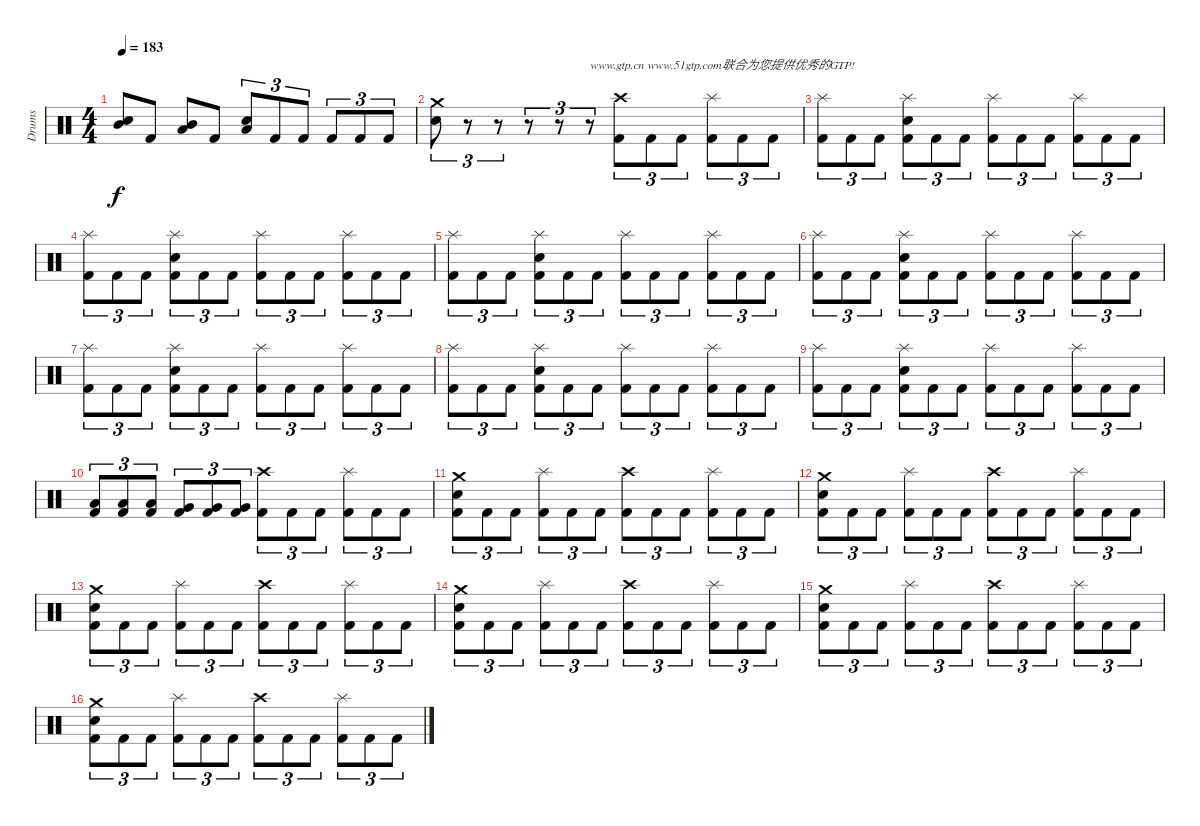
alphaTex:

\track ("Drums" "Drums") {instrument percussion}
\staff {score}
\articulation defaults
\ts (4 4)
\tempo 183
\clef neutral
\ks c
("Electric Snare (hit)" "Mid Tom (hit)").8{dy f} "Kick (hit) 2".8 ("Mid Tom (hit)" "Low Tom (hit)").8 "Kick (hit) 2".8 ("Electric Snare (hit)" "Low Tom (hit)").8{tu (3 2)} "Kick (hit) 2".8{tu (3 2)} "Kick (hit) 2".8{tu (3 2)} "Kick (hit) 2".8{tu (3 2)} "Kick (hit) 2".8{tu (3 2)} "Kick (hit) 2".8{tu (3 2)} |
("Electric Snare (hit)" "Crash medium (hit)").8{tu (3 2)} r.8{tu (3 2)} r.8{tu (3 2)} r.8{tu (3 2)} r.8{tu (3 2)} r.8{tu (3 2) txt "www.gtp.cn www.51gtp.com联合为您提供优秀的GTP!"} ("Kick (hit) 2" "Crash high (hit)").8{tu (3 2)} "Kick (hit) 2".8{tu (3 2)} "Kick (hit) 2".8{tu (3 2)} ("Kick (hit) 2" "Splash (hit)").8{tu (3 2)} "Kick (hit) 2".8{tu (3 2)} "Kick (hit) 2".8{tu (3 2)} |
("Kick (hit) 2" "Splash (hit)").8{tu (3 2)} "Kick (hit) 2".8{tu (3 2)} "Kick (hit) 2".8{tu (3 2)} ("Kick (hit) 2" "Electric Snare (hit)" "Splash (hit)").8{tu (3 2)} "Kick (hit) 2".8{tu (3 2)} "Kick (hit) 2".8{tu (3 2)} ("Kick (hit) 2" "Splash (hit)").8{tu (3 2)} "Kick (hit) 2".8{tu (3 2)} "Kick (hit) 2".8{tu (3 2)} ("Kick (hit) 2" "Splash (hit)").8{tu (3 2)} "Kick (hit) 2".8{tu (3 2)} "Kick (hit) 2".8{tu (3 2)} |
("Kick (hit) 2" "Splash (hit)").8{tu (3 2)} "Kick (hit) 2".8{tu (3 2)} "Kick (hit) 2".8{tu (3 2)} ("Kick (hit) 2" "Electric Snare (hit)" "Splash (hit)").8{tu (3 2)} "Kick (hit) 2".8{tu (3 2)} "Kick (hit) 2".8{tu (3 2)} ("Kick (hit) 2" "Splash (hit)").8{tu (3 2)} "Kick (hit) 2".8{tu (3 2)} "Kick (hit) 2".8{tu (3 2)} ("Kick (hit) 2" "Splash (hit)").8{tu (3 2)} "Kick (hit) 2".8{tu (3 2)} "Kick (hit) 2".8{tu (3 2)} |
("Kick (hit) 2" "Splash (hit)").8{tu (3 2)} "Kick (hit) 2".8{tu (3 2)} "Kick (hit) 2".8{tu (3 2)} ("Kick (hit) 2" "Electric Snare (hit)" "Splash (hit)").8{tu (3 2)} "Kick (hit) 2".8{tu (3 2)} "Kick (hit) 2".8{tu (3 2)} ("Kick (hit) 2" "Splash (hit)").8{tu (3 2)} "Kick (hit) 2".8{tu (3 2)} "Kick (hit) 2".8{tu (3 2)} ("Kick (hit) 2" "Splash (hit)").8{tu (3 2)} "Kick (hit) 2".8{tu (3 2)} "Kick (hit) 2".8{tu (3 2)} |
("Kick (hit) 2" "Splash (hit)").8{tu (3 2)} "Kick (hit) 2".8{tu (3 2)} "Kick (hit) 2".8{tu (3 2)} ("Kick (hit) 2" "Electric Snare (hit)" "Splash (hit)").8{tu (3 2)} "Kick (hit) 2".8{tu (3 2)} "Kick (hit) 2".8{tu (3 2)} ("Kick (hit) 2" "Splash (hit)").8{tu (3 2)} "Kick (hit) 2".8{tu (3 2)} "Kick (hit) 2".8{tu (3 2)} ("Kick (hit) 2" "Splash (hit)").8{tu (3 2)} "Kick (hit) 2".8{tu (3 2)} "Kick (hit) 2".8{tu (3 2)} |
("Kick (hit) 2" "Splash (hit)").8{tu (3 2)} "Kick (hit) 2".8{tu (3 2)} "Kick (hit) 2".8{tu (3 2)} ("Kick (hit) 2" "Electric Snare (hit)" "Splash (hit)").8{tu (3 2)} "Kick (hit) 2".8{tu (3 2)} "Kick (hit) 2".8{tu (3 2)} ("Kick (hit) 2" "Splash (hit)").8{tu (3 2)} "Kick (hit) 2".8{tu (3 2)} "Kick (hit) 2".8{tu (3 2)} ("Kick (hit) 2" "Splash (hit)").8{tu (3 2)} "Kick (hit) 2".8{tu (3 2)} "Kick (hit) 2".8{tu (3 2)} |
("Kick (hit) 2" "Splash (hit)").8{tu (3 2)} "Kick (hit) 2".8{tu (3 2)} "Kick (hit) 2".8{tu (3 2)} ("Kick (hit) 2" "Electric Snare (hit)" "Splash (hit)").8{tu (3 2)} "Kick (hit) 2".8{tu (3 2)} "Kick (hit) 2".8{tu (3 2)} ("Kick (hit) 2" "Splash (hit)").8{tu (3 2)} "Kick (hit) 2".8{tu (3 2)} "Kick (hit) 2".8{tu (3 2)} ("Kick (hit) 2" "Splash (hit)").8{tu (3 2)} "Kick (hit) 2".8{tu (3 2)} "Kick (hit) 2".8{tu (3 2)} |
("Kick (hit) 2" "Splash (hit)").8{tu (3 2)} "Kick (hit) 2".8{tu (3 2)} "Kick (hit) 2".8{tu (3 2)} ("Kick (hit) 2" "Electric Snare (hit)" "Splash (hit)").8{tu (3 2)} "Kick (hit) 2".8{tu (3 2)} "Kick (hit) 2".8{tu (3 2)} ("Kick (hit) 2" "Splash (hit)").8{tu (3 2)} "Kick (hit) 2".8{tu (3 2)} "Kick (hit) 2".8{tu (3 2)} ("Kick (hit) 2" "Splash (hit)").8{tu (3 2)} "Kick (hit) 2".8{tu (3 2)} "Kick (hit) 2".8{tu (3 2)} |
("Kick (hit) 2" "Low Tom (hit)").8{tu (3 2)} ("Kick (hit) 2" "Low Tom (hit)").8{tu (3 2)} ("Kick (hit) 2" "Low Tom (hit)").8{tu (3 2)} ("Kick (hit) 2" "Very Low Tom (hit)").8{tu (3 2)} ("Kick (hit) 2" "Very Low Tom (hit)").8{tu (3 2)} ("Kick (hit) 2" "Very Low Tom (hit)").8{tu (3 2)} ("Kick (hit) 2" "Crash high (hit)").8{tu (3 2)} "Kick (hit) 2".8{tu (3 2)} "Kick (hit) 2".8{tu (3 2)} ("Kick (hit) 2" "Splash (hit)").8{tu (3 2)} "Kick (hit) 2".8{tu (3 2)} "Kick (hit) 2".8{tu (3 2)} |
("Kick (hit) 2" "Electric Snare (hit)" "Crash medium (hit)").8{tu (3 2)} "Kick (hit) 2".8{tu (3 2)} "Kick (hit) 2".8{tu (3 2)} ("Kick (hit) 2" "Splash (hit)").8{tu (3 2)} "Kick (hit) 2".8{tu (3 2)} "Kick (hit) 2".8{tu (3 2)} ("Kick (hit) 2" "Crash high (hit)").8{tu (3 2)} "Kick (hit) 2".8{tu (3 2)} "Kick (hit) 2".8{tu (3 2)} ("Kick (hit) 2" "Splash (hit)").8{tu (3 2)} "Kick (hit) 2".8{tu (3 2)} "Kick (hit) 2".8{tu (3 2)} |
("Kick (hit) 2" "Electric Snare (hit)" "Crash medium (hit)").8{tu (3 2)} "Kick (hit) 2".8{tu (3 2)} "Kick (hit) 2".8{tu (3 2)} ("Kick (hit) 2" "Splash (hit)").8{tu (3 2)} "Kick (hit) 2".8{tu (3 2)} "Kick (hit) 2".8{tu (3 2)} ("Kick (hit) 2" "Crash high (hit)").8{tu (3 2)} "Kick (hit) 2".8{tu (3 2)} "Kick (hit) 2".8{tu (3 2)} ("Kick (hit) 2" "Splash (hit)").8{tu (3 2)} "Kick (hit) 2".8{tu (3 2)} "Kick (hit) 2".8{tu (3 2)} |
("Kick (hit) 2" "Electric Snare (hit)" "Crash medium (hit)").8{tu (3 2)} "Kick (hit) 2".8{tu (3 2)} "Kick (hit) 2".8{tu (3 2)} ("Kick (hit) 2" "Splash (hit)").8{tu (3 2)} "Kick (hit) 2".8{tu (3 2)} "Kick (hit) 2".8{tu (3 2)} ("Kick (hit) 2" "Crash high (hit)").8{tu (3 2)} "Kick (hit) 2".8{tu (3 2)} "Kick (hit) 2".8{tu (3 2)} ("Kick (hit) 2" "Splash (hit)").8{tu (3 2)} "Kick (hit) 2".8{tu (3 2)} "Kick (hit) 2".8{tu (3 2)} |
("Kick (hit) 2" "Electric Snare (hit)" "Crash medium (hit)").8{tu (3 2)} "Kick (hit) 2".8{tu (3 2)} "Kick (hit) 2".8{tu (3 2)} ("Kick (hit) 2" "Splash (hit)").8{tu (3 2)} "Kick (hit) 2".8{tu (3 2)} "Kick (hit) 2".8{tu (3 2)} ("Kick (hit) 2" "Crash high (hit)").8{tu (3 2)} "Kick (hit) 2".8{tu (3 2)} "Kick (hit) 2".8{tu (3 2)} ("Kick (hit) 2" "Splash (hit)").8{tu (3 2)} "Kick (hit) 2".8{tu (3 2)} "Kick (hit) 2".8{tu (3 2)} |
("Kick (hit) 2" "Electric Snare (hit)" "Crash medium (hit)").8{tu (3 2)} "Kick (hit) 2".8{tu (3 2)} "Kick (hit) 2".8{tu (3 2)} ("Kick (hit) 2" "Splash (hit)").8{tu (3 2)} "Kick (hit) 2".8{tu (3 2)} "Kick (hit) 2".8{tu (3 2)} ("Kick (hit) 2" "Crash high (hit)").8{tu (3 2)} "Kick (hit) 2".8{tu (3 2)} "Kick (hit) 2".8{tu (3 2)} ("Kick (hit) 2" "Splash (hit)").8{tu (3 2)} "Kick (hit) 2".8{tu (3 2)} "Kick (hit) 2".8{tu (3 2)} |
("Kick (hit) 2" "Electric Snare (hit)" "Crash medium (hit)").8{tu (3 2)} "Kick (hit) 2".8{tu (3 2)} "Kick (hit) 2".8{tu (3 2)} ("Kick (hit) 2" "Splash (hit)").8{tu (3 2)} "Kick (hit) 2".8{tu (3 2)} "Kick (hit) 2".8{tu (3 2)} ("Kick (hit) 2" "Crash high (hit)").8{tu (3 2)} "Kick (hit) 2".8{tu (3 2)} "Kick (hit) 2".8{tu (3 2)} ("Kick (hit) 2" "Splash (hit)").8{tu (3 2)} "Kick (hit) 2".8{tu (3 2)} "Kick (hit) 2".8{tu (3 2)}
